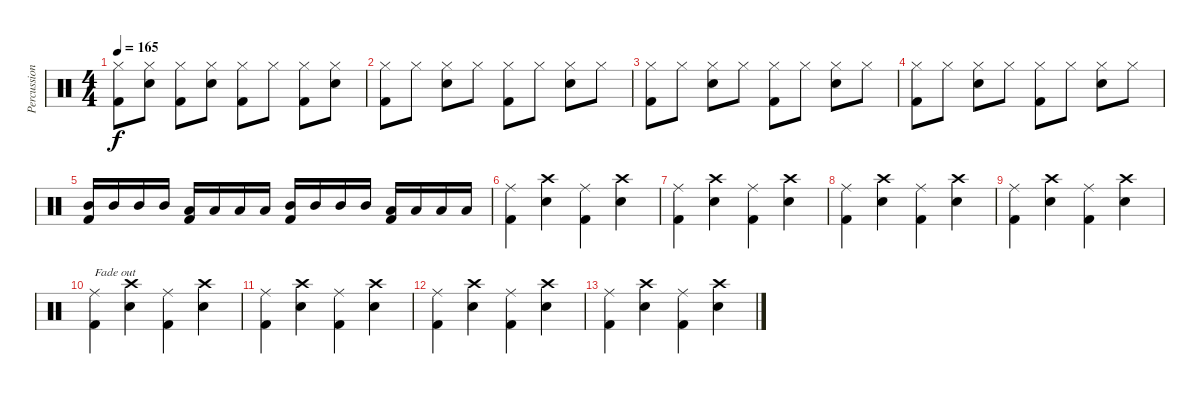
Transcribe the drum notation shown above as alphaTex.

\track ("Percussion" "Percussion") {instrument percussion}
\staff {score}
\articulation defaults
\ts (4 4)
\tempo 165
\clef neutral
\ks c
("Hi-Hat (closed)" "Kick (hit) 2").8{dy f} ("Hi-Hat (closed)" "Snare (hit) 2").8 ("Hi-Hat (closed)" "Kick (hit) 2").8 ("Hi-Hat (closed)" "Snare (hit) 2").8 ("Hi-Hat (closed)" "Kick (hit) 2").8 "Hi-Hat (closed)".8 ("Hi-Hat (closed)" "Kick (hit) 2").8 ("Hi-Hat (closed)" "Snare (hit) 2").8 |
("Hi-Hat (closed)" "Kick (hit) 2").8 "Hi-Hat (closed)".8 ("Hi-Hat (closed)" "Snare (hit) 2").8 "Hi-Hat (closed)".8 ("Hi-Hat (closed)" "Kick (hit) 2").8 "Hi-Hat (closed)".8 ("Hi-Hat (closed)" "Snare (hit) 2").8 "Hi-Hat (closed)".8 |
("Hi-Hat (closed)" "Kick (hit) 2").8 "Hi-Hat (closed)".8 ("Hi-Hat (closed)" "Snare (hit) 2").8 "Hi-Hat (closed)".8 ("Hi-Hat (closed)" "Kick (hit) 2").8 "Hi-Hat (closed)".8 ("Hi-Hat (closed)" "Snare (hit) 2").8 "Hi-Hat (closed)".8 |
("Hi-Hat (closed)" "Kick (hit) 2").8 "Hi-Hat (closed)".8 ("Hi-Hat (closed)" "Snare (hit) 2").8 "Hi-Hat (closed)".8 ("Hi-Hat (closed)" "Kick (hit) 2").8 "Hi-Hat (closed)".8 ("Hi-Hat (closed)" "Snare (hit) 2").8 "Hi-Hat (closed)".8 |
("Mid Tom (hit)" "Kick (hit) 2").16 "Mid Tom (hit)".16 "Mid Tom (hit)".16 "Mid Tom (hit)".16 ("Low Tom (hit)" "Kick (hit) 2").16 "Low Tom (hit)".16 "Low Tom (hit)".16 "Low Tom (hit)".16 ("Mid Tom (hit)" "Kick (hit) 2").16 "Mid Tom (hit)".16 "Mid Tom (hit)".16 "Mid Tom (hit)".16 ("Low Tom (hit)" "Kick (hit) 2").16 "Low Tom (hit)".16 "Low Tom (hit)".16 "Low Tom (hit)".16 |
("Ride (middle)" "Kick (hit) 2").4 ("Crash high (hit)" "Snare (hit) 2").4 ("Ride (middle)" "Kick (hit) 2").4 ("Crash high (hit)" "Snare (hit) 2").4 |
("Ride (middle)" "Kick (hit) 2").4 ("Crash high (hit)" "Snare (hit) 2").4 ("Ride (middle)" "Kick (hit) 2").4 ("Crash high (hit)" "Snare (hit) 2").4 |
("Ride (middle)" "Kick (hit) 2").4 ("Crash high (hit)" "Snare (hit) 2").4 ("Ride (middle)" "Kick (hit) 2").4 ("Crash high (hit)" "Snare (hit) 2").4 |
("Ride (middle)" "Kick (hit) 2").4 ("Crash high (hit)" "Snare (hit) 2").4 ("Ride (middle)" "Kick (hit) 2").4 ("Crash high (hit)" "Snare (hit) 2").4 |
("Ride (middle)" "Kick (hit) 2").4{txt "Fade out" volume 6} ("Crash high (hit)" "Snare (hit) 2").4 ("Ride (middle)" "Kick (hit) 2").4 ("Crash high (hit)" "Snare (hit) 2").4 |
("Ride (middle)" "Kick (hit) 2").4 ("Crash high (hit)" "Snare (hit) 2").4 ("Ride (middle)" "Kick (hit) 2").4 ("Crash high (hit)" "Snare (hit) 2").4 |
("Ride (middle)" "Kick (hit) 2").4{volume 0} ("Crash high (hit)" "Snare (hit) 2").4 ("Ride (middle)" "Kick (hit) 2").4 ("Crash high (hit)" "Snare (hit) 2").4 |
("Ride (middle)" "Kick (hit) 2").4 ("Crash high (hit)" "Snare (hit) 2").4 ("Ride (middle)" "Kick (hit) 2").4 ("Crash high (hit)" "Snare (hit) 2").4
